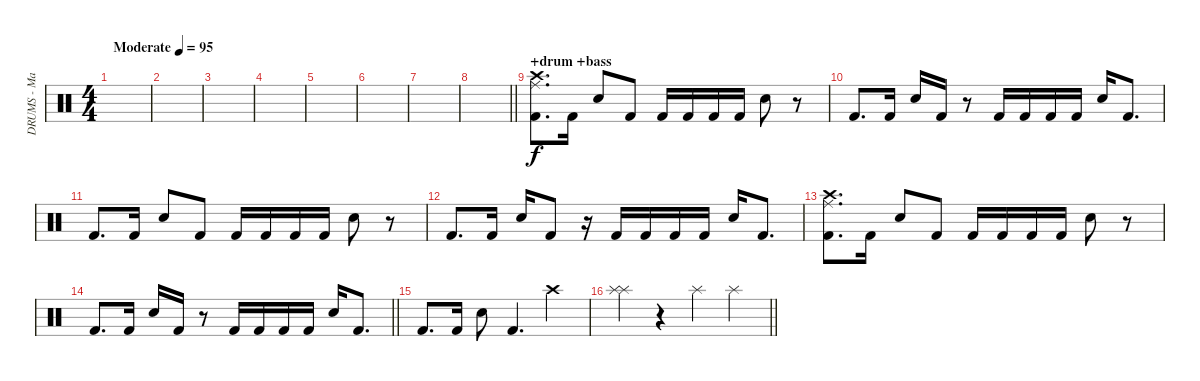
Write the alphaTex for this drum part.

\track ("DRUMS - Mario Duplantier" "DRUMS - Ma") {instrument percussion}
\staff {score}
\articulation defaults
\ts (4 4)
\tempo (95 "Moderate")
\clef neutral
\ks c
|
|
|
|
|
|
|
\barLineRight lightlight
|
\section ("" "+drum +bass")
("Crash high (hit)" "Ride (middle)" "Kick (hit) 2").8{d} "Kick (hit) 2".16 "Electric Snare (hit)".8 "Kick (hit) 2".8 "Kick (hit) 2".16 "Kick (hit) 2".16 "Kick (hit) 2".16 "Kick (hit) 2".16 "Electric Snare (hit)".8 r.8 |
"Kick (hit) 2".8{d} "Kick (hit) 2".16 "Electric Snare (hit)".16 "Kick (hit) 2".16 r.8 "Kick (hit) 2".16 "Kick (hit) 2".16 "Kick (hit) 2".16 "Kick (hit) 2".16 "Electric Snare (hit)".16 "Kick (hit) 2".8{d} |
"Kick (hit) 2".8{d} "Kick (hit) 2".16 "Electric Snare (hit)".8 "Kick (hit) 2".8 "Kick (hit) 2".16 "Kick (hit) 2".16 "Kick (hit) 2".16 "Kick (hit) 2".16 "Electric Snare (hit)".8 r.8 |
"Kick (hit) 2".8{d} "Kick (hit) 2".16 "Electric Snare (hit)".16 "Kick (hit) 2".8 r.16 "Kick (hit) 2".16 "Kick (hit) 2".16 "Kick (hit) 2".16 "Kick (hit) 2".16 "Electric Snare (hit)".16 "Kick (hit) 2".8{d} |
("Crash high (hit)" "Ride (middle)" "Kick (hit) 2").8{d} "Kick (hit) 2".16 "Electric Snare (hit)".8 "Kick (hit) 2".8 "Kick (hit) 2".16 "Kick (hit) 2".16 "Kick (hit) 2".16 "Kick (hit) 2".16 "Electric Snare (hit)".8 r.8 |
\barLineRight lightlight "Kick (hit) 2".8{d} "Kick (hit) 2".16 "Electric Snare (hit)".16 "Kick (hit) 2".16
r.8 "Kick (hit) 2".16 "Kick (hit) 2".16 "Kick (hit) 2".16 "Kick (hit) 2".16 "Electric Snare (hit)".16 "Kick (hit) 2".8{d} |
"Kick (hit) 2".8{d} "Kick (hit) 2".16 "Electric Snare (hit)".8 "Kick (hit) 2".4{d} "Crash high (hit)".4 |
\barLineRight lightlight
("Splash (hit)" "Splash (hit)").4 r.4 "Splash (hit)".4 "Splash (hit)".4
